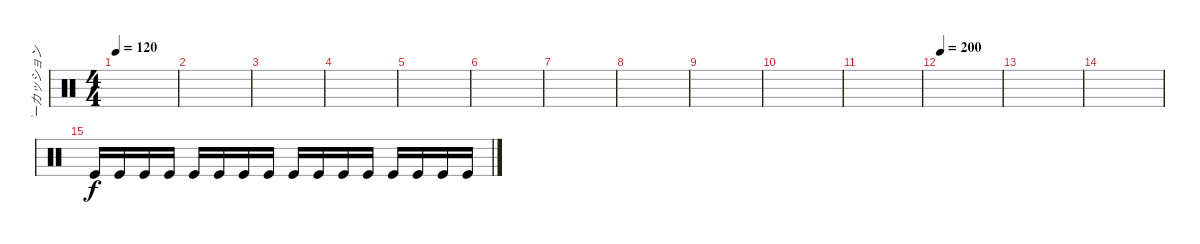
\track ("パーカッション" "パーカッション") {instrument percussion}
\staff {score}
\articulation defaults
\ts (4 4)
\tempo 120
\clef neutral
\ks c
|
|
|
|
|
|
|
|
|
|
|
\tempo 200
|
|
|
"Kick (hit)".16 "Kick (hit)".16 "Kick (hit)".16 "Kick (hit)".16 "Kick (hit)".16 "Kick (hit)".16 "Kick (hit)".16 "Kick (hit)".16 "Kick (hit)".16 "Kick (hit)".16 "Kick (hit)".16 "Kick (hit)".16 "Kick (hit)".16 "Kick (hit)".16 "Kick (hit)".16 "Kick (hit)".16
